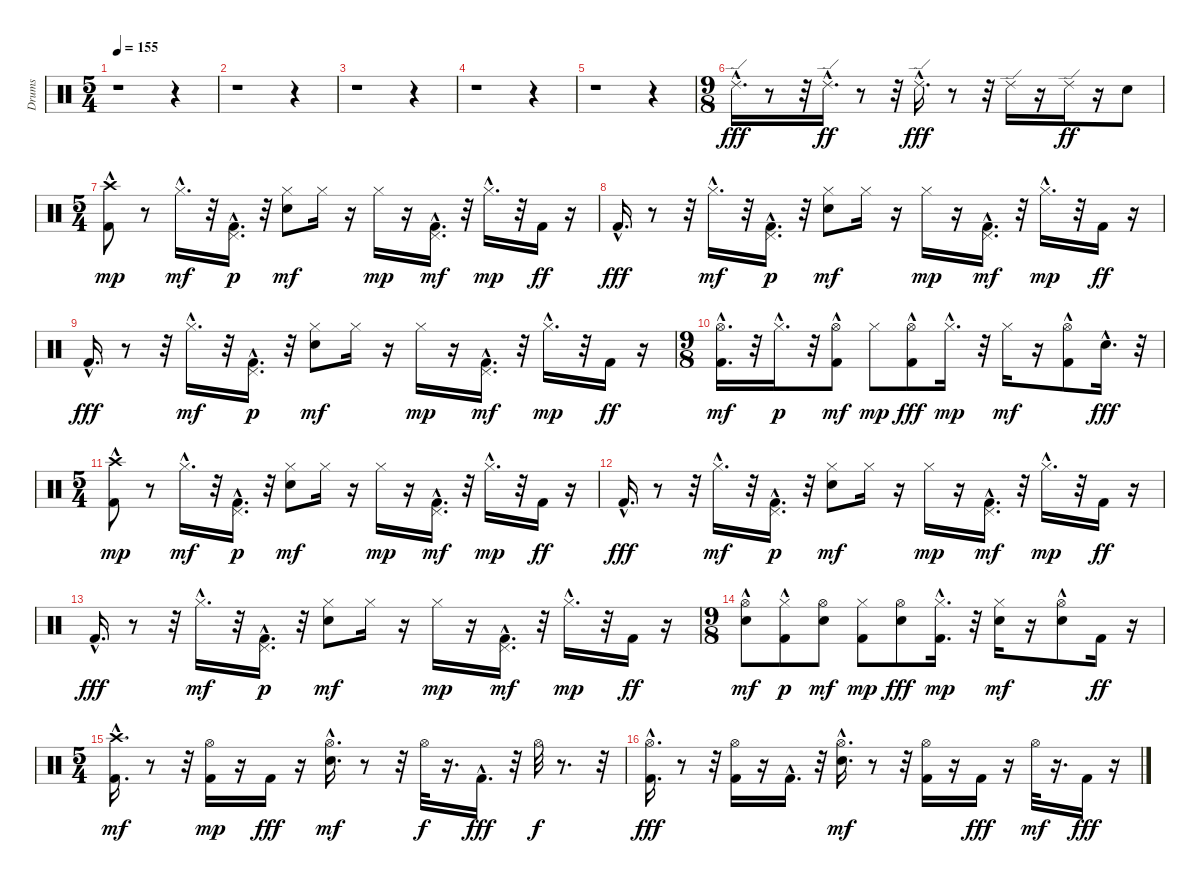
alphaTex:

\track ("Drums" "Drums") {instrument percussion}
\staff {score}
\articulation defaults
\ts (5 4)
\tempo 155
\clef neutral
\ks c
r.1{dy fff} r.4 |
r.1 r.4 |
r.1 r.4 |
r.1 r.4 |
r.1 r.4 |
\ts (9 8)
"Ride (edge) 2"{hac}.16{d volume 15} r.8 r.32 "Ride (edge) 2"{hac}.16{d dy ff} r.8 r.32 "Ride (edge) 2"{hac}.16{d dy fff} r.8 r.32 "Ride (edge) 2".16 r.16 "Ride (edge) 2".16{dy ff} r.16 "Electric Snare (hit)".8 |
\ts (5 4)
("Kick (hit) 2"{hac} "Crash high (hit)").8{dy mp} r.8 "Hi-Hat (closed)"{hac}.16{d dy mf} r.32 ("Kick (hit) 2"{hac} "Pedal Hi-Hat (hit)"{hac}).16{d dy p} r.32 ("Electric Snare (hit)" "Hi-Hat (closed)").8{dy mf} "Hi-Hat (closed)".16 r.16 "Hi-Hat (closed)".16{dy mp} r.16 ("Kick (hit) 2"{hac} "Pedal Hi-Hat (hit)"{hac}).16{d dy mf} r.32 "Hi-Hat (closed)"{hac}.16{d dy mp} r.32 "Kick (hit) 2".16{dy ff} r.16 |
"Kick (hit) 2"{hac}.16{d dy fff} r.8 r.32 "Hi-Hat (closed)"{hac}.16{d dy mf} r.32 ("Kick (hit) 2"{hac} "Pedal Hi-Hat (hit)"{hac}).16{d dy p} r.32 ("Electric Snare (hit)" "Hi-Hat (closed)").8{dy mf} "Hi-Hat (closed)".16 r.16 "Hi-Hat (closed)".16{dy mp} r.16 ("Kick (hit) 2"{hac} "Pedal Hi-Hat (hit)"{hac}).16{d dy mf} r.32 "Hi-Hat (closed)"{hac}.16{d dy mp} r.32 "Kick (hit) 2".16{dy ff} r.16 |
"Kick (hit) 2"{hac}.16{d dy fff} r.8 r.32 "Hi-Hat (closed)"{hac}.16{d dy mf} r.32 ("Kick (hit) 2"{hac} "Pedal Hi-Hat (hit)"{hac}).16{d dy p} r.32 ("Electric Snare (hit)" "Hi-Hat (closed)").8{dy mf} "Hi-Hat (closed)".16 r.16 "Hi-Hat (closed)".16{dy mp} r.16 ("Kick (hit) 2"{hac} "Pedal Hi-Hat (hit)"{hac}).16{d dy mf} r.32 "Hi-Hat (closed)"{hac}.16{d dy mp} r.32 "Kick (hit) 2".16{dy ff} r.16 |
\ts (9 8)
("Kick (hit) 2"{hac} "Hi-Hat (open)"{hac}).16{d dy mf} r.32 "Hi-Hat (closed)"{hac}.16{d dy p} r.32 ("Kick (hit) 2"{hac} "Hi-Hat (open)").8{dy mf} "Hi-Hat (closed)".8{dy mp} ("Kick (hit) 2"{hac} "Hi-Hat (open)").8{dy fff} "Hi-Hat (closed)"{hac}.16{d dy mp} r.32 "Hi-Hat (closed)".16{dy mf} r.16 ("Kick (hit) 2"{hac} "Hi-Hat (open)").8 "Electric Snare (hit)"{hac}.16{d dy fff} r.32 |
\ts (5 4)
("Kick (hit) 2"{hac} "Crash high (hit)").8{dy mp} r.8 "Hi-Hat (closed)"{hac}.16{d dy mf} r.32 ("Kick (hit) 2"{hac} "Pedal Hi-Hat (hit)"{hac}).16{d dy p} r.32 ("Electric Snare (hit)" "Hi-Hat (closed)").8{dy mf} "Hi-Hat (closed)".16 r.16 "Hi-Hat (closed)".16{dy mp} r.16 ("Kick (hit) 2"{hac} "Pedal Hi-Hat (hit)"{hac}).16{d dy mf} r.32 "Hi-Hat (closed)"{hac}.16{d dy mp} r.32 "Kick (hit) 2".16{dy ff} r.16 |
"Kick (hit) 2"{hac}.16{d dy fff} r.8 r.32 "Hi-Hat (closed)"{hac}.16{d dy mf} r.32 ("Kick (hit) 2"{hac} "Pedal Hi-Hat (hit)"{hac}).16{d dy p} r.32 ("Electric Snare (hit)" "Hi-Hat (closed)").8{dy mf} "Hi-Hat (closed)".16 r.16 "Hi-Hat (closed)".16{dy mp} r.16 ("Kick (hit) 2"{hac} "Pedal Hi-Hat (hit)"{hac}).16{d dy mf} r.32 "Hi-Hat (closed)"{hac}.16{d dy mp} r.32 "Kick (hit) 2".16{dy ff} r.16 |
"Kick (hit) 2"{hac}.16{d dy fff} r.8 r.32 "Hi-Hat (closed)"{hac}.16{d dy mf} r.32 ("Kick (hit) 2"{hac} "Pedal Hi-Hat (hit)"{hac}).16{d dy p} r.32 ("Electric Snare (hit)" "Hi-Hat (closed)").8{dy mf} "Hi-Hat (closed)".16 r.16 "Hi-Hat (closed)".16{dy mp} r.16 ("Kick (hit) 2"{hac} "Pedal Hi-Hat (hit)"{hac}).16{d dy mf} r.32 "Hi-Hat (closed)"{hac}.16{d dy mp} r.32 "Kick (hit) 2".16{dy ff} r.16 |
\ts (9 8)
("Electric Snare (hit)" "Hi-Hat (open)"{hac}).8{dy mf} ("Kick (hit) 2" "Hi-Hat (closed)"{hac}).8{dy p} ("Electric Snare (hit)" "Hi-Hat (open)").8{dy mf} ("Kick (hit) 2" "Hi-Hat (closed)").8{dy mp} ("Electric Snare (hit)" "Hi-Hat (open)").8{dy fff} ("Kick (hit) 2"{hac} "Hi-Hat (closed)"{hac}).16{d dy mp} r.32 ("Electric Snare (hit)" "Hi-Hat (closed)").16{dy mf} r.16 ("Electric Snare (hit)"{hac} "Hi-Hat (open)").8 "Kick (hit) 2".16{dy ff} r.16 |
\ts (5 4)
("Kick (hit) 2"{hac} "Crash high (hit)").16{d dy mf} r.8 r.32 ("Kick (hit) 2" "Hi-Hat (open)").16{dy mp} r.16 "Kick (hit) 2".16{dy fff} r.16 ("Electric Snare (hit)"{hac} "Hi-Hat (open)").16{d dy mf} r.8 r.32 "Hi-Hat (open)".32{dy f} r.16{d} "Kick (hit) 2"{hac}.16{d dy fff} r.32 "Hi-Hat (open)".32{dy f} r.8{d} r.32 |
("Kick (hit) 2"{hac} "Hi-Hat (open)").16{d dy fff} r.8 r.32 ("Kick (hit) 2" "Hi-Hat (open)").16 r.16 "Kick (hit) 2"{hac}.16{d} r.32 ("Electric Snare (hit)"{hac} "Hi-Hat (open)").16{d dy mf} r.8 r.32 ("Kick (hit) 2" "Hi-Hat (open)").16 r.16 "Kick (hit) 2".16{dy fff} r.16 "Hi-Hat (open)".32{dy mf} r.16{d} "Kick (hit) 2".16{dy fff} r.16
